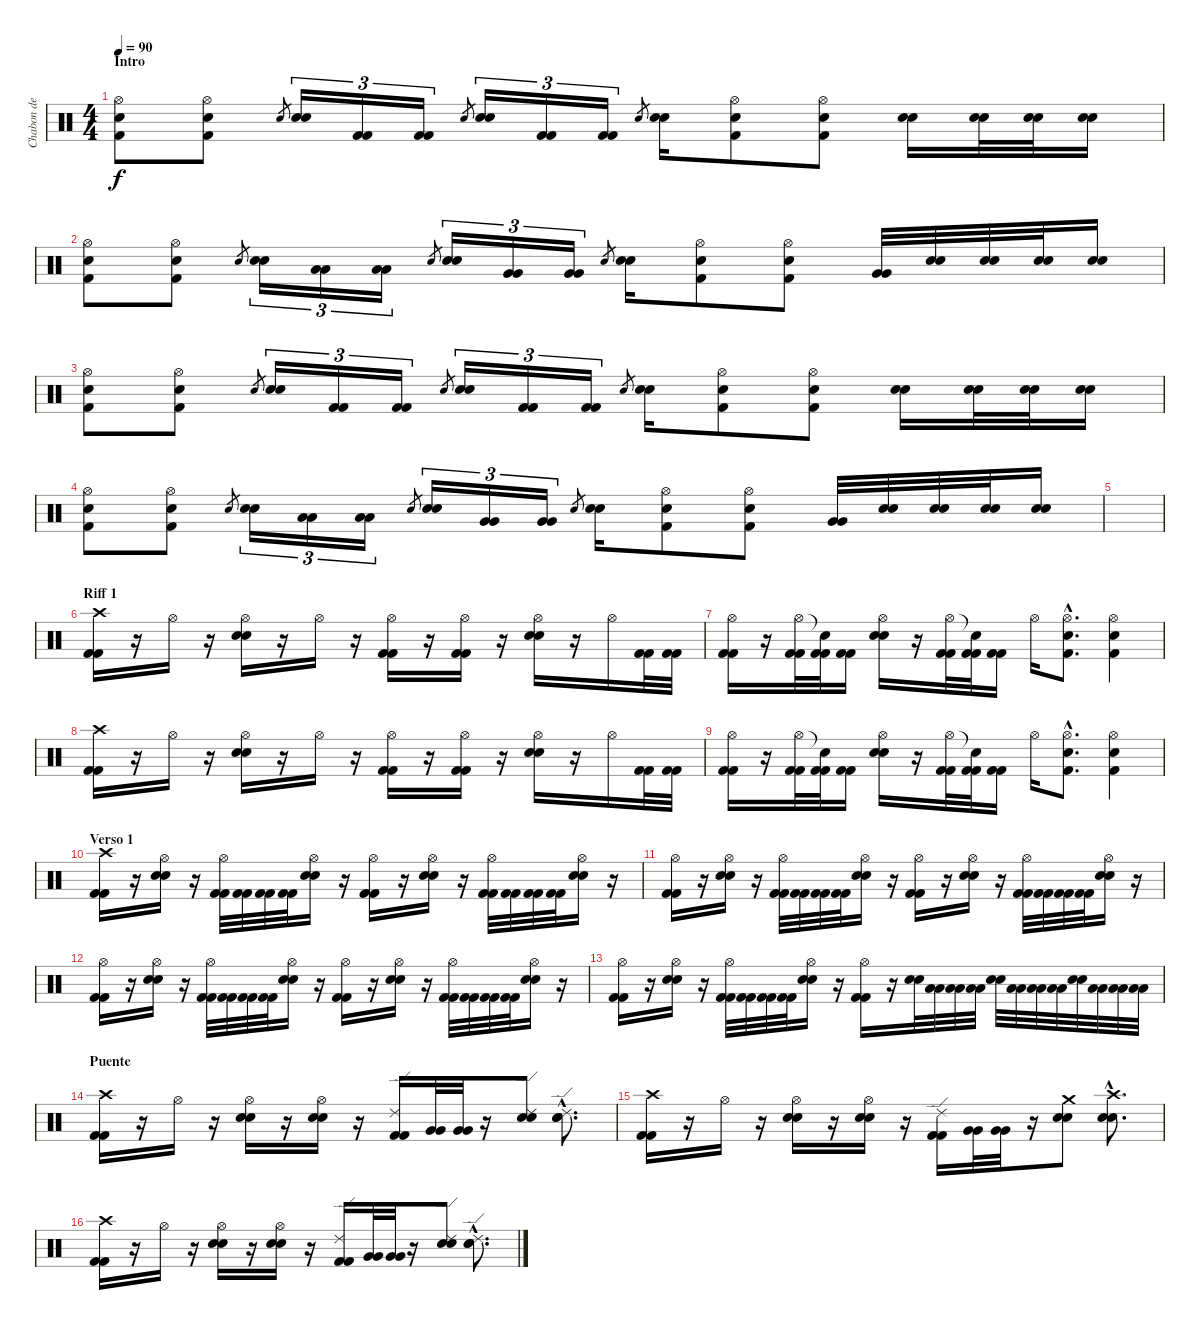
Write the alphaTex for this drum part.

\track ("Chabon de Vorax" "Chabon de ") {instrument percussion}
\staff {score}
\articulation defaults
\ts (4 4)
\section ("" "Intro")
\tempo 90
\clef neutral
\ks c
("Hi-Hat (open)" "Snare (hit) 2" "Kick (hit) 2").8{dy f} ("Hi-Hat (open)" "Snare (hit) 2" "Kick (hit) 2").8 "Snare (hit) 2".8{gr} ("Snare (hit) 2" "Snare (hit) 2").16{tu (3 2)} ("Kick (hit) 2" "Kick (hit) 2").16{tu (3 2)} ("Kick (hit) 2" "Kick (hit) 2").16{tu (3 2)} "Snare (hit) 2".8{gr} ("Snare (hit) 2" "Snare (hit) 2").16{tu (3 2)} ("Kick (hit) 2" "Kick (hit) 2").16{tu (3 2)} ("Kick (hit) 2" "Kick (hit) 2").16{tu (3 2)} "Snare (hit) 2".8{gr} ("Snare (hit) 2" "Snare (hit) 2").16 ("Hi-Hat (open)" "Snare (hit) 2" "Kick (hit) 2").8 ("Hi-Hat (open)" "Snare (hit) 2" "Kick (hit) 2").8 ("Snare (hit) 2" "Snare (hit) 2").16 ("Snare (hit) 2" "Snare (hit) 2").32 ("Snare (hit) 2" "Snare (hit) 2").32 ("Snare (hit) 2" "Snare (hit) 2").16 |
("Hi-Hat (open)" "Snare (hit) 2" "Kick (hit) 2").8 ("Hi-Hat (open)" "Snare (hit) 2" "Kick (hit) 2").8 "Snare (hit) 2".8{gr} ("Snare (hit) 2" "Snare (hit) 2").16{tu (3 2)} ("Low Tom (hit)" "Low Tom (hit)").16{tu (3 2)} ("Low Tom (hit)" "Low Tom (hit)").16{tu (3 2)} "Snare (hit) 2".8{gr} ("Snare (hit) 2" "Snare (hit) 2").16{tu (3 2)} ("Very Low Tom (hit)" "Very Low Tom (hit)").16{tu (3 2)} ("Very Low Tom (hit)" "Very Low Tom (hit)").16{tu (3 2)} "Snare (hit) 2".8{gr} ("Snare (hit) 2" "Snare (hit) 2").16 ("Hi-Hat (open)" "Snare (hit) 2" "Kick (hit) 2").8 ("Hi-Hat (open)" "Snare (hit) 2" "Kick (hit) 2").8 ("Very Low Tom (hit)" "Very Low Tom (hit)").32 ("Snare (hit) 2" "Snare (hit) 2").32 ("Snare (hit) 2" "Snare (hit) 2").32 ("Snare (hit) 2" "Snare (hit) 2").32 ("Snare (hit) 2" "Snare (hit) 2").16 |
("Hi-Hat (open)" "Snare (hit) 2" "Kick (hit) 2").8 ("Hi-Hat (open)" "Snare (hit) 2" "Kick (hit) 2").8 "Snare (hit) 2".8{gr} ("Snare (hit) 2" "Snare (hit) 2").16{tu (3 2)} ("Kick (hit) 2" "Kick (hit) 2").16{tu (3 2)} ("Kick (hit) 2" "Kick (hit) 2").16{tu (3 2)} "Snare (hit) 2".8{gr} ("Snare (hit) 2" "Snare (hit) 2").16{tu (3 2)} ("Kick (hit) 2" "Kick (hit) 2").16{tu (3 2)} ("Kick (hit) 2" "Kick (hit) 2").16{tu (3 2)} "Snare (hit) 2".8{gr} ("Snare (hit) 2" "Snare (hit) 2").16 ("Hi-Hat (open)" "Snare (hit) 2" "Kick (hit) 2").8 ("Hi-Hat (open)" "Snare (hit) 2" "Kick (hit) 2").8 ("Snare (hit) 2" "Snare (hit) 2").16 ("Snare (hit) 2" "Snare (hit) 2").32 ("Snare (hit) 2" "Snare (hit) 2").32 ("Snare (hit) 2" "Snare (hit) 2").16 |
("Hi-Hat (open)" "Snare (hit) 2" "Kick (hit) 2").8 ("Hi-Hat (open)" "Snare (hit) 2" "Kick (hit) 2").8 "Snare (hit) 2".8{gr} ("Snare (hit) 2" "Snare (hit) 2").16{tu (3 2)} ("Low Tom (hit)" "Low Tom (hit)").16{tu (3 2)} ("Low Tom (hit)" "Low Tom (hit)").16{tu (3 2)} "Snare (hit) 2".8{gr} ("Snare (hit) 2" "Snare (hit) 2").16{tu (3 2)} ("Very Low Tom (hit)" "Very Low Tom (hit)").16{tu (3 2)} ("Very Low Tom (hit)" "Very Low Tom (hit)").16{tu (3 2)} "Snare (hit) 2".8{gr} ("Snare (hit) 2" "Snare (hit) 2").16 ("Hi-Hat (open)" "Snare (hit) 2" "Kick (hit) 2").8 ("Hi-Hat (open)" "Snare (hit) 2" "Kick (hit) 2").8 ("Very Low Tom (hit)" "Very Low Tom (hit)").32 ("Snare (hit) 2" "Snare (hit) 2").32 ("Snare (hit) 2" "Snare (hit) 2").32 ("Snare (hit) 2" "Snare (hit) 2").32 ("Snare (hit) 2" "Snare (hit) 2").16 |
|
\section ("" "Riff 1")
("Crash high (hit)" "Kick (hit) 2" "Kick (hit) 2").16 r.16 "Hi-Hat (open)".16 r.16 ("Hi-Hat (open)" "Snare (hit) 2" "Snare (hit) 2").16 r.16 "Hi-Hat (open)".16 r.16 ("Hi-Hat (open)" "Kick (hit) 2" "Kick (hit) 2").16 r.16 ("Hi-Hat (open)" "Kick (hit) 2" "Kick (hit) 2").16 r.16 ("Hi-Hat (open)" "Snare (hit) 2" "Snare (hit) 2").16 r.16 "Hi-Hat (open)".16 ("Kick (hit) 2" "Kick (hit) 2").32 ("Kick (hit) 2" "Kick (hit) 2").32 |
("Hi-Hat (open)" "Kick (hit) 2" "Kick (hit) 2").16 r.16 ("Hi-Hat (open)" "Kick (hit) 2" "Kick (hit) 2").32 ("Snare (hit)"{t} "Kick (hit) 2" "Kick (hit) 2").32 ("Kick (hit) 2" "Kick (hit) 2").16 ("Hi-Hat (open)" "Snare (hit) 2" "Snare (hit) 2").16 r.16 ("Hi-Hat (open)" "Kick (hit) 2" "Kick (hit) 2").32 ("Snare (hit)"{t} "Kick (hit) 2" "Kick (hit) 2").32 ("Kick (hit) 2" "Kick (hit) 2").16 "Hi-Hat (open)".16 ("Hi-Hat (open)"{hac} "Snare (hit) 2"{hac} "Kick (hit) 2"{hac}).8{d} ("Hi-Hat (open)" "Snare (hit) 2" "Kick (hit) 2").4 |
("Crash high (hit)" "Kick (hit) 2" "Kick (hit) 2").16 r.16 "Hi-Hat (open)".16 r.16 ("Hi-Hat (open)" "Snare (hit) 2" "Snare (hit) 2").16 r.16 "Hi-Hat (open)".16 r.16 ("Hi-Hat (open)" "Kick (hit) 2" "Kick (hit) 2").16 r.16 ("Hi-Hat (open)" "Kick (hit) 2" "Kick (hit) 2").16 r.16 ("Hi-Hat (open)" "Snare (hit) 2" "Snare (hit) 2").16 r.16 "Hi-Hat (open)".16 ("Kick (hit) 2" "Kick (hit) 2").32 ("Kick (hit) 2" "Kick (hit) 2").32 |
("Hi-Hat (open)" "Kick (hit) 2" "Kick (hit) 2").16 r.16 ("Hi-Hat (open)" "Kick (hit) 2" "Kick (hit) 2").32 ("Snare (hit)"{t} "Kick (hit) 2" "Kick (hit) 2").32 ("Kick (hit) 2" "Kick (hit) 2").16 ("Hi-Hat (open)" "Snare (hit) 2" "Snare (hit) 2").16 r.16 ("Hi-Hat (open)" "Kick (hit) 2" "Kick (hit) 2").32 ("Snare (hit)"{t} "Kick (hit) 2" "Kick (hit) 2").32 ("Kick (hit) 2" "Kick (hit) 2").16 "Hi-Hat (open)".16 ("Hi-Hat (open)"{hac} "Snare (hit) 2"{hac} "Kick (hit) 2"{hac}).8{d} ("Hi-Hat (open)" "Snare (hit) 2" "Kick (hit) 2").4 |
\section ("" "Verso 1")
("Crash high (hit)" "Kick (hit) 2" "Kick (hit) 2").16 r.16 ("Hi-Hat (open)" "Snare (hit) 2" "Snare (hit) 2").16 r.16 ("Hi-Hat (open)" "Kick (hit) 2" "Kick (hit) 2").32 ("Kick (hit) 2" "Kick (hit) 2").32 ("Kick (hit) 2" "Kick (hit) 2").32 ("Kick (hit) 2" "Kick (hit) 2").32 ("Hi-Hat (open)" "Snare (hit) 2" "Snare (hit) 2").16 r.16 ("Hi-Hat (open)" "Kick (hit) 2" "Kick (hit) 2").16 r.16 ("Hi-Hat (open)" "Snare (hit) 2" "Snare (hit) 2").16 r.16 ("Hi-Hat (open)" "Kick (hit) 2" "Kick (hit) 2").32 ("Kick (hit) 2" "Kick (hit) 2").32 ("Kick (hit) 2" "Kick (hit) 2").32 ("Kick (hit) 2" "Kick (hit) 2").32 ("Hi-Hat (open)" "Snare (hit) 2" "Snare (hit) 2").16 r.16 |
("Hi-Hat (open)" "Kick (hit) 2" "Kick (hit) 2").16 r.16 ("Hi-Hat (open)" "Snare (hit) 2" "Snare (hit) 2").16 r.16 ("Hi-Hat (open)" "Kick (hit) 2" "Kick (hit) 2").32 ("Kick (hit) 2" "Kick (hit) 2").32 ("Kick (hit) 2" "Kick (hit) 2").32 ("Kick (hit) 2" "Kick (hit) 2").32 ("Hi-Hat (open)" "Snare (hit) 2" "Snare (hit) 2").16 r.16 ("Hi-Hat (open)" "Kick (hit) 2" "Kick (hit) 2").16 r.16 ("Hi-Hat (open)" "Snare (hit) 2" "Snare (hit) 2").16 r.16 ("Hi-Hat (open)" "Kick (hit) 2" "Kick (hit) 2").32 ("Kick (hit) 2" "Kick (hit) 2").32 ("Kick (hit) 2" "Kick (hit) 2").32 ("Kick (hit) 2" "Kick (hit) 2").32 ("Hi-Hat (open)" "Snare (hit) 2" "Snare (hit) 2").16 r.16 |
("Hi-Hat (open)" "Kick (hit) 2" "Kick (hit) 2").16 r.16 ("Hi-Hat (open)" "Snare (hit) 2" "Snare (hit) 2").16 r.16 ("Hi-Hat (open)" "Kick (hit) 2" "Kick (hit) 2").32 ("Kick (hit) 2" "Kick (hit) 2").32 ("Kick (hit) 2" "Kick (hit) 2").32 ("Kick (hit) 2" "Kick (hit) 2").32 ("Hi-Hat (open)" "Snare (hit) 2" "Snare (hit) 2").16 r.16 ("Hi-Hat (open)" "Kick (hit) 2" "Kick (hit) 2").16 r.16 ("Hi-Hat (open)" "Snare (hit) 2" "Snare (hit) 2").16 r.16 ("Hi-Hat (open)" "Kick (hit) 2" "Kick (hit) 2").32 ("Kick (hit) 2" "Kick (hit) 2").32 ("Kick (hit) 2" "Kick (hit) 2").32 ("Kick (hit) 2" "Kick (hit) 2").32 ("Hi-Hat (open)" "Snare (hit) 2" "Snare (hit) 2").16 r.16 |
("Hi-Hat (open)" "Kick (hit) 2" "Kick (hit) 2").16 r.16 ("Hi-Hat (open)" "Snare (hit) 2" "Snare (hit) 2").16 r.16 ("Hi-Hat (open)" "Kick (hit) 2" "Kick (hit) 2").32 ("Kick (hit) 2" "Kick (hit) 2").32 ("Kick (hit) 2" "Kick (hit) 2").32 ("Kick (hit) 2" "Kick (hit) 2").32 ("Hi-Hat (open)" "Snare (hit) 2" "Snare (hit) 2").16 r.16 ("Hi-Hat (open)" "Kick (hit) 2" "Kick (hit) 2").16 r.16 ("Snare (hit) 2" "Snare (hit) 2").32 ("Low Floor Tom (hit)" "Low Floor Tom (hit)").32 ("Low Floor Tom (hit)" "Low Floor Tom (hit)").32 ("Low Floor Tom (hit)" "Low Floor Tom (hit)").32 ("Snare (hit) 2" "Snare (hit) 2").32 ("Low Floor Tom (hit)" "Low Floor Tom (hit)").32 ("Low Floor Tom (hit)" "Low Floor Tom (hit)").32 ("Low Floor Tom (hit)" "Low Floor Tom (hit)").32 ("Snare (hit) 2" "Snare (hit) 2").32 ("Low Floor Tom (hit)" "Low Floor Tom (hit)").32 ("Low Floor Tom (hit)" "Low Floor Tom (hit)").32 ("Low Floor Tom (hit)" "Low Floor Tom (hit)").32 |
\section ("" "Puente")
("Crash high (hit)" "Kick (hit) 2" "Kick (hit) 2").16 r.16 "Hi-Hat (open)".16 r.16 ("Hi-Hat (open)" "Snare (hit) 2" "Snare (hit) 2").16 r.16 ("Hi-Hat (open)" "Snare (hit) 2" "Snare (hit) 2").16 r.16 ("Ride (edge) 2" "Kick (hit) 2" "Kick (hit) 2").16 ("Very Low Tom (hit)" "Very Low Tom (hit)").32 ("Very Low Tom (hit)" "Very Low Tom (hit)").32 r.16 ("Ride (edge) 2" "Snare (hit) 2" "Snare (hit) 2").8 ("Ride (edge) 2"{hac} "Snare (hit) 2"{hac} "Snare (hit) 2"{hac}).8{d} |
("Crash high (hit)" "Kick (hit) 2" "Kick (hit) 2").16 r.16 "Hi-Hat (open)".16 r.16 ("Hi-Hat (open)" "Snare (hit) 2" "Snare (hit) 2").16 r.16 ("Hi-Hat (open)" "Snare (hit) 2" "Snare (hit) 2").16 r.16 ("Ride (edge) 2" "Kick (hit) 2" "Kick (hit) 2").16 ("Very Low Tom (hit)" "Very Low Tom (hit)").32 ("Very Low Tom (hit)" "Very Low Tom (hit)").32 r.16 ("Crash medium (hit)" "Snare (hit) 2" "Snare (hit) 2").8 ("Crash high (hit)"{hac} "Snare (hit) 2"{hac} "Snare (hit) 2"{hac}).8{d} |
("Crash high (hit)" "Kick (hit) 2" "Kick (hit) 2").16 r.16 "Hi-Hat (open)".16 r.16 ("Hi-Hat (open)" "Snare (hit) 2" "Snare (hit) 2").16 r.16 ("Hi-Hat (open)" "Snare (hit) 2" "Snare (hit) 2").16 r.16 ("Ride (edge) 2" "Kick (hit) 2" "Kick (hit) 2").16 ("Very Low Tom (hit)" "Very Low Tom (hit)").32 ("Very Low Tom (hit)" "Very Low Tom (hit)").32 r.16 ("Ride (edge) 2" "Snare (hit) 2" "Snare (hit) 2").8 ("Ride (edge) 2"{hac} "Snare (hit) 2"{hac} "Snare (hit) 2"{hac}).8{d}
